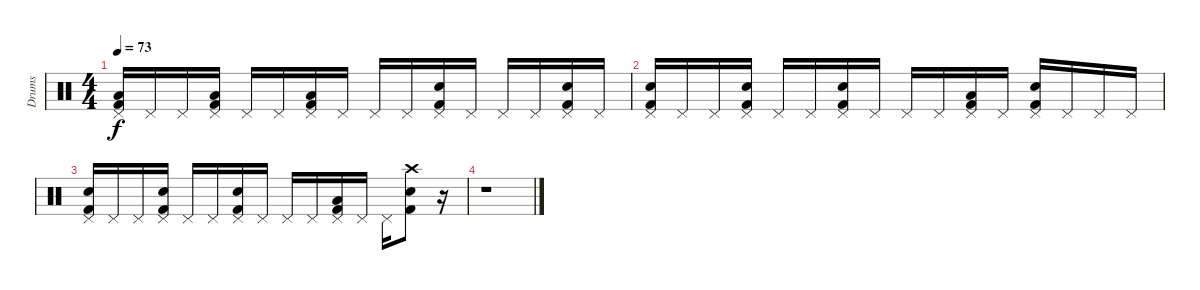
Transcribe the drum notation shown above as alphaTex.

\track ("Drums" "Drums") {instrument percussion}
\staff {score}
\articulation defaults
\ts (4 4)
\tempo 73
\clef neutral
\ks c
("Pedal Hi-Hat (hit)" "Low Floor Tom (hit)" "Kick (hit) 2").16{dy f} "Pedal Hi-Hat (hit)".16 "Pedal Hi-Hat (hit)".16 ("Pedal Hi-Hat (hit)" "Low Floor Tom (hit)" "Kick (hit) 2").16 "Pedal Hi-Hat (hit)".16 "Pedal Hi-Hat (hit)".16 ("Pedal Hi-Hat (hit)" "Low Floor Tom (hit)" "Kick (hit) 2").16 "Pedal Hi-Hat (hit)".16 "Pedal Hi-Hat (hit)".16 "Pedal Hi-Hat (hit)".16 ("Pedal Hi-Hat (hit)" "Snare (hit) 2" "Kick (hit) 2").16 "Pedal Hi-Hat (hit)".16 "Pedal Hi-Hat (hit)".16 "Pedal Hi-Hat (hit)".16 ("Pedal Hi-Hat (hit)" "Snare (hit) 2" "Kick (hit) 2").16 "Pedal Hi-Hat (hit)".16 |
("Pedal Hi-Hat (hit)" "Snare (hit) 2" "Kick (hit) 2").16 "Pedal Hi-Hat (hit)".16 "Pedal Hi-Hat (hit)".16 ("Pedal Hi-Hat (hit)" "Snare (hit) 2" "Kick (hit) 2").16 "Pedal Hi-Hat (hit)".16 "Pedal Hi-Hat (hit)".16 ("Pedal Hi-Hat (hit)" "Snare (hit) 2" "Kick (hit) 2").16 "Pedal Hi-Hat (hit)".16 "Pedal Hi-Hat (hit)".16 "Pedal Hi-Hat (hit)".16 ("Pedal Hi-Hat (hit)" "Low Floor Tom (hit)" "Kick (hit) 2").16 "Pedal Hi-Hat (hit)".16 ("Pedal Hi-Hat (hit)" "Snare (hit) 2" "Kick (hit) 2").16 "Pedal Hi-Hat (hit)".16 "Pedal Hi-Hat (hit)".16 "Pedal Hi-Hat (hit)".16 |
("Pedal Hi-Hat (hit)" "Snare (hit) 2" "Kick (hit) 2").16 "Pedal Hi-Hat (hit)".16 "Pedal Hi-Hat (hit)".16 ("Pedal Hi-Hat (hit)" "Snare (hit) 2" "Kick (hit) 2").16 "Pedal Hi-Hat (hit)".16 "Pedal Hi-Hat (hit)".16 ("Pedal Hi-Hat (hit)" "Snare (hit) 2" "Kick (hit) 2").16 "Pedal Hi-Hat (hit)".16 "Pedal Hi-Hat (hit)".16 "Pedal Hi-Hat (hit)".16 ("Pedal Hi-Hat (hit)" "Low Floor Tom (hit)" "Kick (hit) 2").16 "Pedal Hi-Hat (hit)".16 "Pedal Hi-Hat (hit)".16 ("Crash high (hit)" "Snare (hit) 2" "Kick (hit) 2").8 r.16 |
r.1
